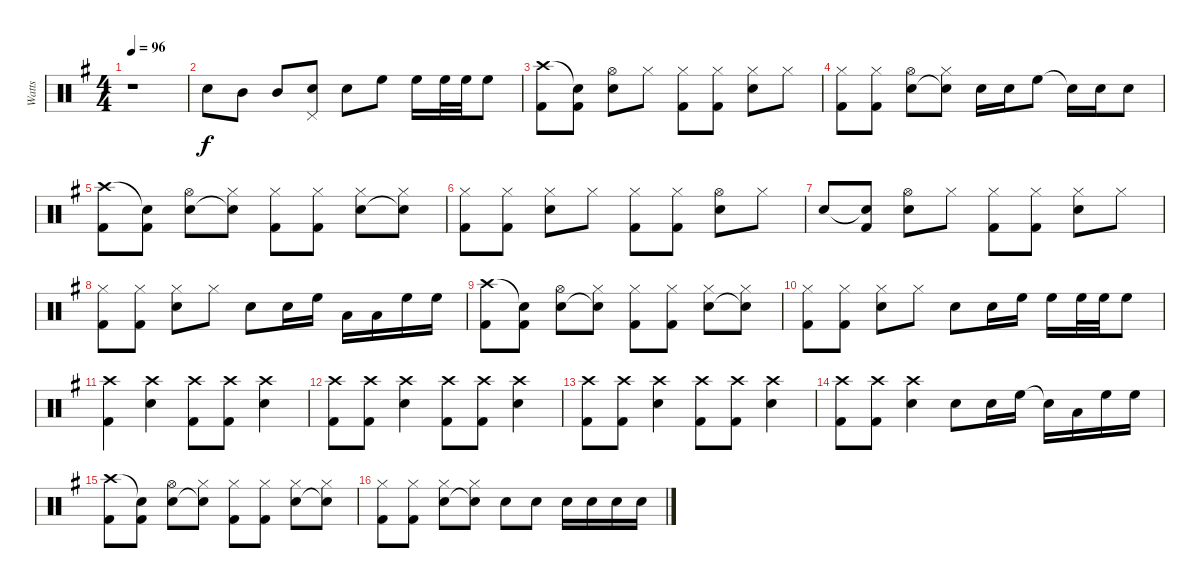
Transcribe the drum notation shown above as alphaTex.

\track ("Watts" "Watts") {instrument percussion}
\staff {score}
\articulation defaults
\ts (4 4)
\tempo 96
\clef neutral
\ks g
r.1{dy f} |
"Snare (hit) 2".8 "Mid Tom (hit)".8 "Mid Tom (hit)".8 ("Pedal Hi-Hat (hit)" "Snare (hit)").8 "Snare (hit) 2".8 "High Floor Tom (hit)".8 "High Floor Tom (hit)".16 "High Floor Tom (hit)".32 "High Floor Tom (hit)".32 "High Floor Tom (hit)".8 |
("Crash high (hit)" "Kick (hit) 2").8 ("Snare (hit)"{t} "Kick (hit) 2").8 ("Hi-Hat (open)" "Snare (hit) 2").8 "Hi-Hat (closed)".8 ("Hi-Hat (closed)" "Kick (hit) 2").8 ("Hi-Hat (closed)" "Kick (hit) 2").8 ("Hi-Hat (closed)" "Snare (hit) 2").8 "Hi-Hat (closed)".8 |
("Hi-Hat (closed)" "Kick (hit) 2").8 ("Hi-Hat (closed)" "Kick (hit) 2").8 ("Hi-Hat (open)" "Snare (hit) 2").8 ("Hi-Hat (closed)" "Snare (hit)"{t}).8 "Snare (hit) 2".16 "Snare (hit) 2".16 "High Floor Tom (hit)".8 "Snare (hit)"{t}.16 "Snare (hit) 2".16 "Snare (hit) 2".8 |
("Crash high (hit)" "Kick (hit) 2").8 ("Snare (hit)"{t} "Kick (hit) 2").8 ("Hi-Hat (open)" "Snare (hit) 2").8 ("Hi-Hat (closed)" "Snare (hit)"{t}).8 ("Hi-Hat (closed)" "Kick (hit) 2").8 ("Hi-Hat (closed)" "Kick (hit) 2").8 ("Hi-Hat (closed)" "Snare (hit) 2").8 ("Hi-Hat (closed)" "Snare (hit)"{t}).8 |
("Hi-Hat (closed)" "Kick (hit) 2").8 ("Hi-Hat (closed)" "Kick (hit) 2").8 ("Hi-Hat (closed)" "Snare (hit) 2").8 "Hi-Hat (closed)".8 ("Hi-Hat (closed)" "Kick (hit) 2").8 ("Hi-Hat (closed)" "Kick (hit) 2").8 ("Hi-Hat (open)" "Snare (hit) 2").8 "Hi-Hat (closed)".8 |
"Snare (hit) 2".8 ("Snare (hit)"{t} "Kick (hit) 2").8 ("Hi-Hat (open)" "Snare (hit) 2").8 "Hi-Hat (closed)".8 ("Hi-Hat (closed)" "Kick (hit) 2").8 ("Hi-Hat (closed)" "Kick (hit) 2").8 ("Hi-Hat (closed)" "Snare (hit) 2").8 "Hi-Hat (closed)".8 |
("Hi-Hat (closed)" "Kick (hit) 2").8 ("Hi-Hat (closed)" "Kick (hit) 2").8 ("Hi-Hat (closed)" "Snare (hit) 2").8 "Hi-Hat (closed)".8 "Snare (hit) 2".8 "Snare (hit) 2".16 "High Floor Tom (hit)".16 "Low Tom (hit)".16 "Low Tom (hit)".16 "High Floor Tom (hit)".16 "High Floor Tom (hit)".16 |
("Crash high (hit)" "Kick (hit) 2").8 ("Snare (hit)"{t} "Kick (hit) 2").8 ("Hi-Hat (open)" "Snare (hit) 2").8 ("Hi-Hat (closed)" "Snare (hit)"{t}).8 ("Hi-Hat (closed)" "Kick (hit) 2").8 ("Hi-Hat (closed)" "Kick (hit) 2").8 ("Hi-Hat (closed)" "Snare (hit) 2").8 ("Hi-Hat (closed)" "Snare (hit)"{t}).8 |
("Hi-Hat (closed)" "Kick (hit) 2").8 ("Hi-Hat (closed)" "Kick (hit) 2").8 ("Hi-Hat (closed)" "Snare (hit) 2").8 "Hi-Hat (closed)".8 "Snare (hit) 2".8 "Snare (hit) 2".16 "High Floor Tom (hit)".16 "High Floor Tom (hit)".16 "High Floor Tom (hit)".32 "High Floor Tom (hit)".32 "High Floor Tom (hit)".8 |
("Crash high (hit)" "Kick (hit) 2").4 ("Crash high (hit)" "Snare (hit) 2").4 ("Crash high (hit)" "Kick (hit) 2").8 ("Crash high (hit)" "Kick (hit) 2").8 ("Crash high (hit)" "Snare (hit) 2").4 |
("Crash high (hit)" "Kick (hit) 2").8 ("Crash high (hit)" "Kick (hit) 2").8 ("Crash high (hit)" "Snare (hit) 2").4 ("Crash high (hit)" "Kick (hit) 2").8 ("Crash high (hit)" "Kick (hit) 2").8 ("Crash high (hit)" "Snare (hit) 2").4 |
("Crash high (hit)" "Kick (hit) 2").8 ("Crash high (hit)" "Kick (hit) 2").8 ("Crash high (hit)" "Snare (hit) 2").4 ("Crash high (hit)" "Kick (hit) 2").8 ("Crash high (hit)" "Kick (hit) 2").8 ("Crash high (hit)" "Snare (hit) 2").4 |
("Crash high (hit)" "Kick (hit) 2").8 ("Crash high (hit)" "Kick (hit) 2").8 ("Crash high (hit)" "Snare (hit) 2").4 "Snare (hit) 2".8 "Snare (hit) 2".16 "High Floor Tom (hit)".16 "Snare (hit)"{t}.16 "Low Tom (hit)".16 "High Floor Tom (hit)".16 "High Floor Tom (hit)".16 |
("Crash high (hit)" "Kick (hit) 2").8 ("Snare (hit)"{t} "Kick (hit) 2").8 ("Hi-Hat (open)" "Snare (hit) 2").8 ("Hi-Hat (closed)" "Snare (hit)"{t}).8 ("Hi-Hat (closed)" "Kick (hit) 2").8 ("Hi-Hat (closed)" "Kick (hit) 2").8 ("Hi-Hat (closed)" "Snare (hit) 2").8 ("Hi-Hat (closed)" "Snare (hit)"{t}).8 |
("Hi-Hat (closed)" "Kick (hit) 2").8 ("Hi-Hat (closed)" "Kick (hit) 2").8 ("Hi-Hat (closed)" "Snare (hit) 2").8 ("Hi-Hat (closed)" "Snare (hit)"{t}).8 "Snare (hit) 2".8 "Snare (hit) 2".8 "Snare (hit) 2".16 "Snare (hit) 2".16 "Snare (hit) 2".16 "Snare (hit) 2".16
